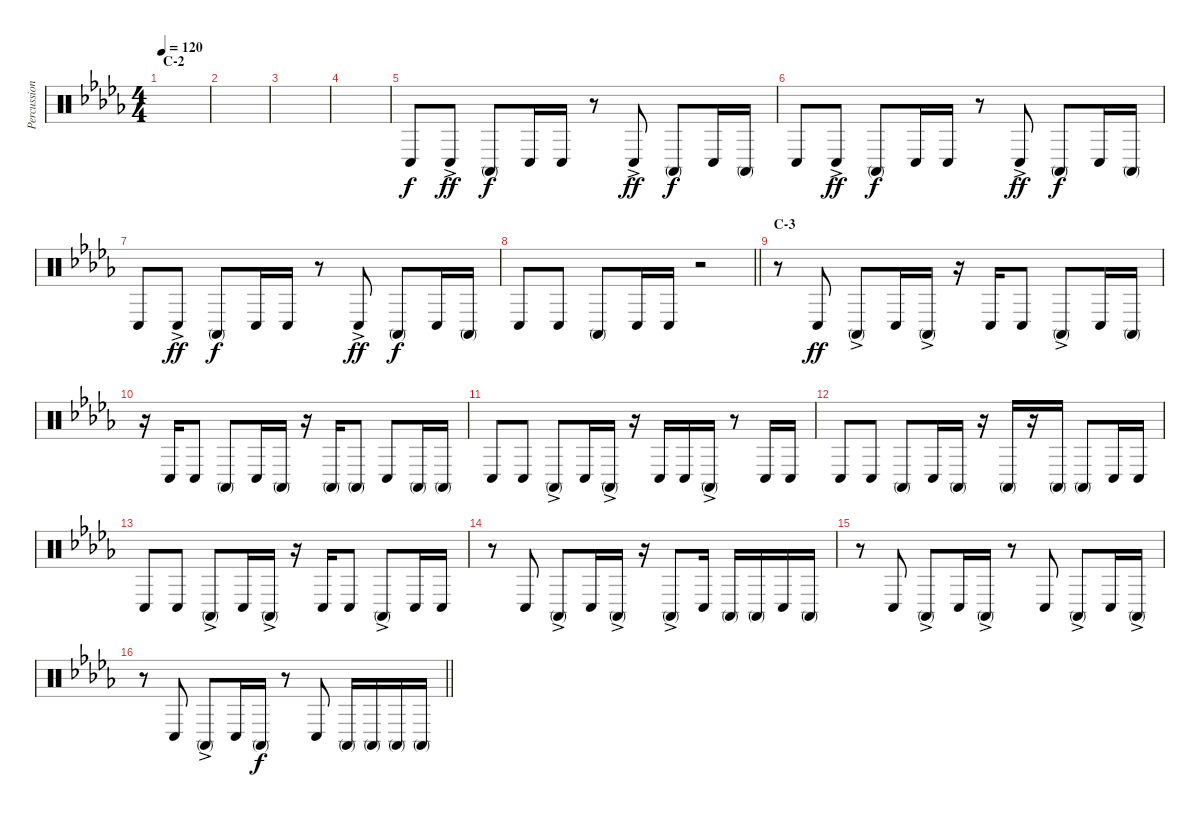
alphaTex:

\track ("Percussion A (Tainaka Ritsu)" "Percussion") {instrument percussion}
\staff {score}
\articulation defaults
\ts (4 4)
\section ("" "C-2")
\tempo 120
\clef neutral
\ks db
|
|
|
|
"Conga low (hit)".8 "Conga low (hit)"{ac}.8{dy ff} "Conga high (mute)".8{dy f} "Conga low (hit)".16 "Conga low (hit)".16 r.8 "Conga low (hit)"{ac}.8{dy ff} "Conga high (mute)".8{dy f} "Conga low (hit)".16 "Conga high (mute)".16 |
"Conga low (hit)".8 "Conga low (hit)"{ac}.8{dy ff} "Conga high (mute)".8{dy f} "Conga low (hit)".16 "Conga low (hit)".16 r.8 "Conga low (hit)"{ac}.8{dy ff} "Conga high (mute)".8{dy f} "Conga low (hit)".16 "Conga high (mute)".16 |
"Conga low (hit)".8 "Conga low (hit)"{ac}.8{dy ff} "Conga high (mute)".8{dy f} "Conga low (hit)".16 "Conga low (hit)".16 r.8 "Conga low (hit)"{ac}.8{dy ff} "Conga high (mute)".8{dy f} "Conga low (hit)".16 "Conga high (mute)".16 |
\barLineRight lightlight "Conga low (hit)".8 "Conga low (hit)".8 "Conga high (mute)".8 "Conga low (hit)".16 "Conga low (hit)".16
r.2 |
\section ("" "C-3")
r.8 "Conga low (hit)".8{dy ff} "Conga high (mute)"{ac}.8 "Conga low (hit)".16 "Conga high (mute)"{ac}.16 r.16 "Conga low (hit)".16 "Conga low (hit)".8 "Conga high (mute)"{ac}.8 "Conga low (hit)".16 "Conga high (mute)".16 |
r.16 "Conga low (hit)".16 "Conga low (hit)".8 "Conga high (mute)".8 "Conga low (hit)".16 "Conga high (mute)".16 r.16 "Conga high (mute)".16 "Conga high (mute)".8 "Conga low (hit)".8 "Conga high (mute)".16 "Conga high (mute)".16 |
"Conga low (hit)".8 "Conga low (hit)".8 "Conga high (mute)"{ac}.8 "Conga low (hit)".16 "Conga high (mute)"{ac}.16 r.16 "Conga low (hit)".16 "Conga low (hit)".16 "Conga high (mute)"{ac}.16 r.8 "Conga low (hit)".16 "Conga low (hit)".16 |
"Conga low (hit)".8 "Conga low (hit)".8 "Conga high (mute)".8 "Conga low (hit)".16 "Conga high (mute)".16 r.16 "Conga high (mute)".16 r.16 "Conga high (mute)".16 "Conga high (mute)".8 "Conga low (hit)".16 "Conga low (hit)".16 |
"Conga low (hit)".8 "Conga low (hit)".8 "Conga high (mute)"{ac}.8 "Conga low (hit)".16 "Conga high (mute)"{ac}.16 r.16 "Conga low (hit)".16 "Conga low (hit)".8 "Conga high (mute)"{ac}.8 "Conga low (hit)".16 "Conga low (hit)".16 |
r.8 "Conga low (hit)".8 "Conga high (mute)"{ac}.8 "Conga low (hit)".16 "Conga high (mute)"{ac}.16 r.16 "Conga high (mute)"{ac}.8 "Conga low (hit)".16 "Conga high (mute)".16 "Conga high (mute)".16 "Conga low (hit)".16 "Conga high (mute)".16 |
r.8 "Conga low (hit)".8 "Conga high (mute)"{ac}.8 "Conga low (hit)".16 "Conga high (mute)"{ac}.16 r.8 "Conga low (hit)".8 "Conga high (mute)"{ac}.8 "Conga low (hit)".16 "Conga high (mute)"{ac}.16 |
\barLineRight lightlight
r.8 "Conga low (hit)".8 "Conga high (mute)"{ac}.8 "Conga low (hit)".16 "Conga high (mute)".16{dy f} r.8 "Conga low (hit)".8 "Conga high (mute)".16 "Conga high (mute)".16 "Conga high (mute)".16 "Conga high (mute)".16
